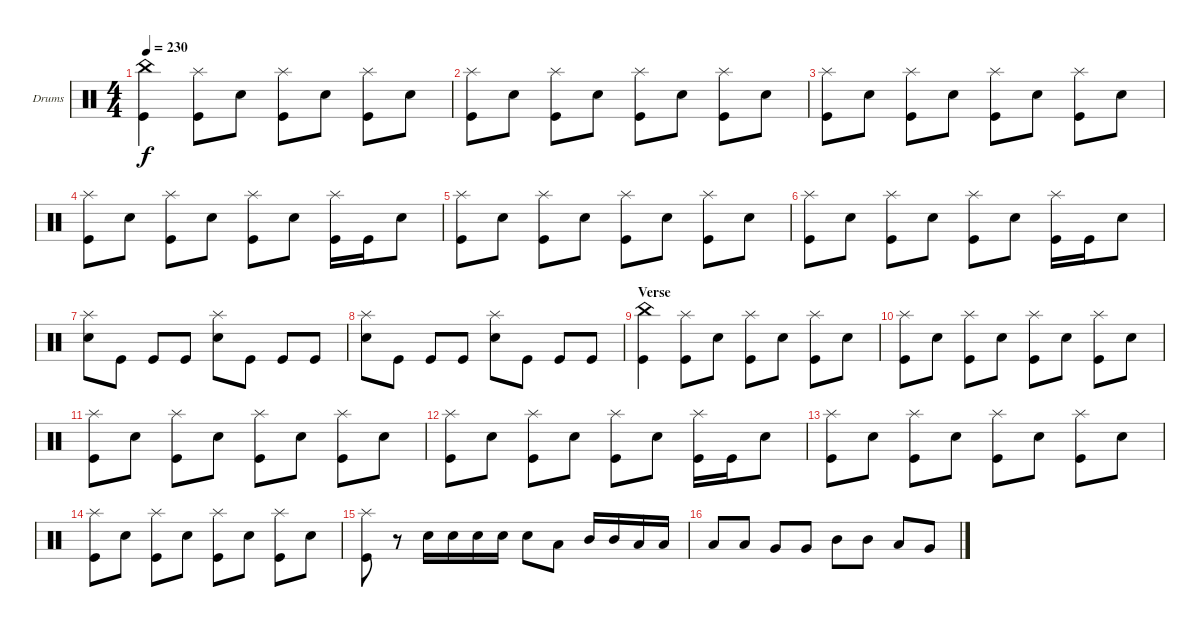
\defaultSystemsLayout 4
\bracketExtendMode groupsimilarinstruments
\firstSystemTrackNameOrientation horizontal
\otherSystemsTrackNameOrientation horizontal
\track ("Drumkit" "Drums") {instrument percussion}
\staff {score}
\articulation defaults
\ts (4 4)
\tempo 230
\clef neutral
\ks c
("China (hit)" "Kick (hit)").4{dy f} ("Kick (hit)" "Splash (hit)").8 "Snare (hit) 2".8 ("Kick (hit)" "Splash (hit)").8 "Snare (hit) 2".8 ("Kick (hit)" "Splash (hit)").8 "Snare (hit) 2".8 |
("Kick (hit)" "Splash (hit)").8 "Snare (hit) 2".8 ("Kick (hit)" "Splash (hit)").8 "Snare (hit) 2".8 ("Kick (hit)" "Splash (hit)").8 "Snare (hit) 2".8 ("Kick (hit)" "Splash (hit)").8 "Snare (hit) 2".8 |
("Kick (hit)" "Splash (hit)").8 "Snare (hit) 2".8 ("Kick (hit)" "Splash (hit)").8 "Snare (hit) 2".8 ("Kick (hit)" "Splash (hit)").8 "Snare (hit) 2".8 ("Kick (hit)" "Splash (hit)").8 "Snare (hit) 2".8 |
("Kick (hit)" "Splash (hit)").8 "Snare (hit) 2".8 ("Kick (hit)" "Splash (hit)").8 "Snare (hit) 2".8 ("Kick (hit)" "Splash (hit)").8 "Snare (hit) 2".8 ("Kick (hit)" "Splash (hit)").16 "Kick (hit)".16 "Snare (hit) 2".8 |
("Kick (hit)" "Splash (hit)").8 "Snare (hit) 2".8 ("Kick (hit)" "Splash (hit)").8 "Snare (hit) 2".8 ("Kick (hit)" "Splash (hit)").8 "Snare (hit) 2".8 ("Kick (hit)" "Splash (hit)").8 "Snare (hit) 2".8 |
("Kick (hit)" "Splash (hit)").8 "Snare (hit) 2".8 ("Kick (hit)" "Splash (hit)").8 "Snare (hit) 2".8 ("Kick (hit)" "Splash (hit)").8 "Snare (hit) 2".8 ("Kick (hit)" "Splash (hit)").16 "Kick (hit)".16 "Snare (hit) 2".8 |
("Splash (hit)" "Snare (hit) 2").8 "Kick (hit)".8 "Kick (hit)".8 "Kick (hit)".8 ("Snare (hit) 2" "Splash (hit)").8 "Kick (hit)".8 "Kick (hit)".8 "Kick (hit)".8 |
("Splash (hit)" "Snare (hit) 2").8 "Kick (hit)".8 "Kick (hit)".8 "Kick (hit)".8 ("Snare (hit) 2" "Splash (hit)").8 "Kick (hit)".8 "Kick (hit)".8 "Kick (hit)".8 |
\section ("" "Verse")
("China (hit)" "Kick (hit)").4 ("Kick (hit)" "Splash (hit)").8 "Snare (hit) 2".8 ("Kick (hit)" "Splash (hit)").8 "Snare (hit) 2".8 ("Kick (hit)" "Splash (hit)").8 "Snare (hit) 2".8 |
("Kick (hit)" "Splash (hit)").8 "Snare (hit) 2".8 ("Kick (hit)" "Splash (hit)").8 "Snare (hit) 2".8 ("Kick (hit)" "Splash (hit)").8 "Snare (hit) 2".8 ("Kick (hit)" "Splash (hit)").8 "Snare (hit) 2".8 |
("Kick (hit)" "Splash (hit)").8 "Snare (hit) 2".8 ("Kick (hit)" "Splash (hit)").8 "Snare (hit) 2".8 ("Kick (hit)" "Splash (hit)").8 "Snare (hit) 2".8 ("Kick (hit)" "Splash (hit)").8 "Snare (hit) 2".8 |
("Kick (hit)" "Splash (hit)").8 "Snare (hit) 2".8 ("Kick (hit)" "Splash (hit)").8 "Snare (hit) 2".8 ("Kick (hit)" "Splash (hit)").8 "Snare (hit) 2".8 ("Kick (hit)" "Splash (hit)").16 "Kick (hit)".16 "Snare (hit) 2".8 |
("Kick (hit)" "Splash (hit)").8 "Snare (hit) 2".8 ("Kick (hit)" "Splash (hit)").8 "Snare (hit) 2".8 ("Kick (hit)" "Splash (hit)").8 "Snare (hit) 2".8 ("Kick (hit)" "Splash (hit)").8 "Snare (hit) 2".8 |
("Kick (hit)" "Splash (hit)").8 "Snare (hit) 2".8 ("Kick (hit)" "Splash (hit)").8 "Snare (hit) 2".8 ("Kick (hit)" "Splash (hit)").8 "Snare (hit) 2".8 ("Kick (hit)" "Splash (hit)").8 "Snare (hit) 2".8 |
("Kick (hit)" "Splash (hit)").8 r.8 "Snare (hit) 2".16 "Snare (hit) 2".16 "Snare (hit) 2".16 "Snare (hit) 2".16 "Snare (hit) 2".8 "Low Tom (hit)".8 "Mid Tom (hit)".16 "Mid Tom (hit)".16 "Low Tom (hit)".16 "Low Tom (hit)".16 |
"Low Tom (hit)".8 "Low Tom (hit)".8 "Very Low Tom (hit)".8 "Very Low Tom (hit)".8 "Mid Tom (hit)".8 "Mid Tom (hit)".8 "Low Tom (hit)".8 "Very Low Tom (hit)".8
